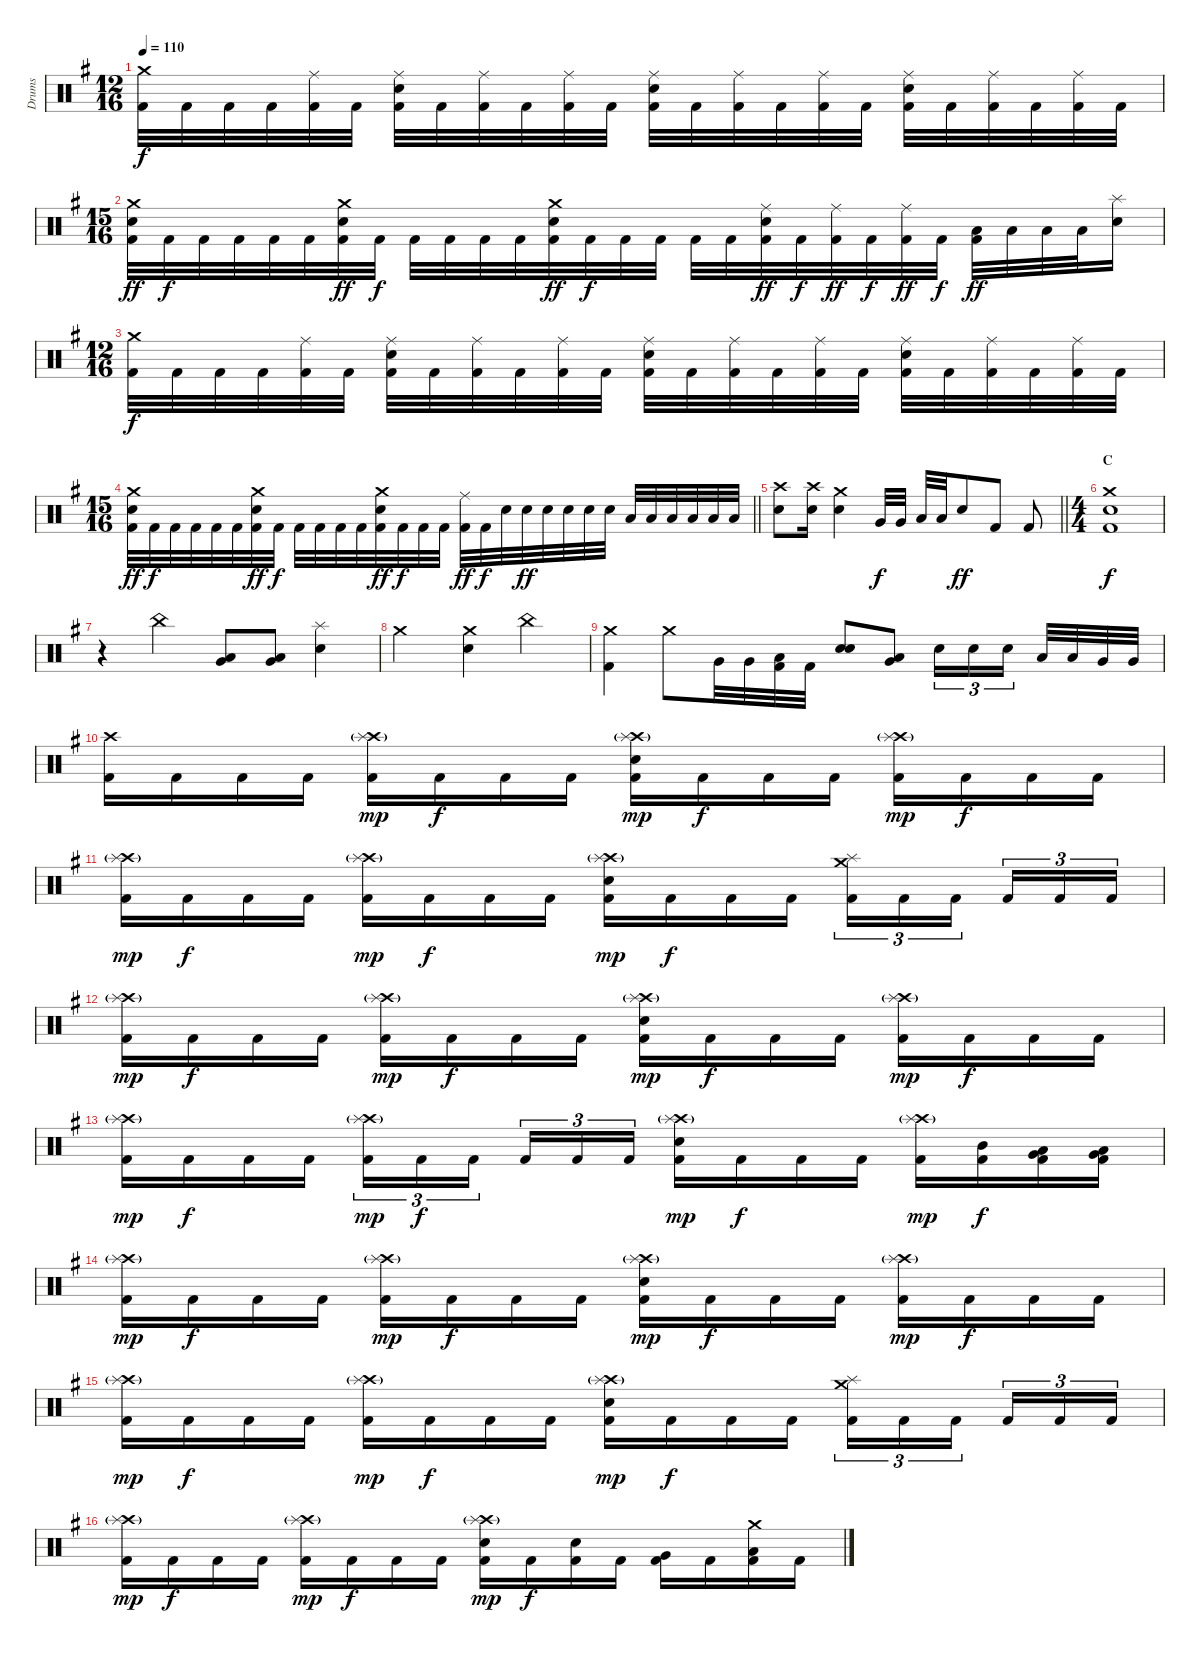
\track ("Drums" "Drums") {instrument percussion}
\staff {score}
\articulation defaults
\ts (12 16)
\tempo 110
\clef neutral
\ks eminor
("Crash medium (hit)" "Kick (hit) 2").32{dy f} "Kick (hit) 2".32 "Kick (hit) 2".32 "Kick (hit) 2".32 ("Ride (middle)" "Kick (hit) 2").32 "Kick (hit) 2".32 ("Ride (middle)" "Snare (hit) 2" "Kick (hit) 2").32 "Kick (hit) 2".32 ("Ride (middle)" "Kick (hit) 2").32 "Kick (hit) 2".32 ("Ride (middle)" "Kick (hit) 2").32 "Kick (hit) 2".32 ("Ride (middle)" "Snare (hit) 2" "Kick (hit) 2").32 "Kick (hit) 2".32 ("Ride (middle)" "Kick (hit) 2").32 "Kick (hit) 2".32 ("Ride (middle)" "Kick (hit) 2").32 "Kick (hit) 2".32 ("Ride (middle)" "Snare (hit) 2" "Kick (hit) 2").32 "Kick (hit) 2".32 ("Ride (middle)" "Kick (hit) 2").32 "Kick (hit) 2".32 ("Ride (middle)" "Kick (hit) 2").32 "Kick (hit) 2".32 |
\ts (15 16)
("Crash medium (hit)" "Snare (hit) 2" "Kick (hit) 2").32{dy ff} "Kick (hit) 2".32{dy f} "Kick (hit) 2".32 "Kick (hit) 2".32 "Kick (hit) 2".32 "Kick (hit) 2".32 ("Crash medium (hit)" "Snare (hit) 2" "Kick (hit) 2").32{dy ff} "Kick (hit) 2".32{dy f} "Kick (hit) 2".32 "Kick (hit) 2".32 "Kick (hit) 2".32 "Kick (hit) 2".32 ("Crash medium (hit)" "Snare (hit) 2" "Kick (hit) 2").32{dy ff} "Kick (hit) 2".32{dy f} "Kick (hit) 2".32 "Kick (hit) 2".32 "Kick (hit) 2".32 "Kick (hit) 2".32 ("Ride (middle)" "Snare (hit) 2" "Kick (hit) 2").32{dy ff} "Kick (hit) 2".32{dy f} ("Ride (middle)" "Kick (hit) 2").32{dy ff} "Kick (hit) 2".32{dy f} ("Ride (middle)" "Kick (hit) 2").32{dy ff} "Kick (hit) 2".32{dy f} ("Low Floor Tom (hit)" "Kick (hit) 2").32{dy ff} "Low Floor Tom (hit)".32 "Low Floor Tom (hit)".32 "Low Floor Tom (hit)".32 ("Splash (hit)" "Snare (hit) 2").16 |
\ts (12 16)
("Crash medium (hit)" "Kick (hit) 2").32{dy f} "Kick (hit) 2".32 "Kick (hit) 2".32 "Kick (hit) 2".32 ("Ride (middle)" "Kick (hit) 2").32 "Kick (hit) 2".32 ("Ride (middle)" "Snare (hit) 2" "Kick (hit) 2").32 "Kick (hit) 2".32 ("Ride (middle)" "Kick (hit) 2").32 "Kick (hit) 2".32 ("Ride (middle)" "Kick (hit) 2").32 "Kick (hit) 2".32 ("Ride (middle)" "Snare (hit) 2" "Kick (hit) 2").32 "Kick (hit) 2".32 ("Ride (middle)" "Kick (hit) 2").32 "Kick (hit) 2".32 ("Ride (middle)" "Kick (hit) 2").32 "Kick (hit) 2".32 ("Ride (middle)" "Snare (hit) 2" "Kick (hit) 2").32 "Kick (hit) 2".32 ("Ride (middle)" "Kick (hit) 2").32 "Kick (hit) 2".32 ("Ride (middle)" "Kick (hit) 2").32 "Kick (hit) 2".32 |
\ts (15 16)
\barLineRight lightlight
("Crash medium (hit)" "Snare (hit) 2" "Kick (hit) 2").32{dy ff} "Kick (hit) 2".32{dy f} "Kick (hit) 2".32 "Kick (hit) 2".32 "Kick (hit) 2".32 "Kick (hit) 2".32 ("Crash medium (hit)" "Snare (hit) 2" "Kick (hit) 2").32{dy ff} "Kick (hit) 2".32{dy f} "Kick (hit) 2".32 "Kick (hit) 2".32 "Kick (hit) 2".32 "Kick (hit) 2".32 ("Crash medium (hit)" "Snare (hit) 2" "Kick (hit) 2").32{dy ff} "Kick (hit) 2".32{dy f} "Kick (hit) 2".32 "Kick (hit) 2".32 ("Ride (middle)" "Kick (hit) 2").32{dy ff} "Kick (hit) 2".32{dy f} "Snare (hit) 2".32 "Snare (hit) 2".32{dy ff} "Snare (hit) 2".32 "Snare (hit) 2".32 "Snare (hit) 2".32 "Snare (hit) 2".32 "Low Tom (hit)".32 "Low Tom (hit)".32 "Low Tom (hit)".32 "Low Tom (hit)".32 "Low Tom (hit)".32 "Low Tom (hit)".32 |
\barLineRight lightlight
("Crash high (hit)" "Snare (hit) 2").8 ("Crash high (hit)" "Snare (hit) 2").16 ("Crash medium (hit)" "Snare (hit) 2").4 "Very Low Tom (hit)".32{dy f} "Very Low Tom (hit)".32 "Low Floor Tom (hit)".32 "Low Floor Tom (hit)".32 "Snare (hit) 2".8{dy ff} "Kick (hit) 2".8 "Kick (hit) 2".8 |
\ts (4 4)
\section ("" "C")
("Crash medium (hit)" "Snare (hit) 2" "Kick (hit) 2").1{dy f} |
r.4 "China (hit)".4 ("Very Low Tom (hit)" "Low Floor Tom (hit)").8 ("Very Low Tom (hit)" "Low Floor Tom (hit)").8 ("Splash (hit)" "Snare (hit) 2").4 |
"Crash medium (hit)".2 ("Crash medium (hit)" "Snare (hit) 2").4 "China (hit)".4 |
("Crash medium (hit)" "Kick (hit) 2").4 "Crash medium (hit)".8 "Very Low Tom (hit)".32 "Very Low Tom (hit)".32 ("Low Floor Tom (hit)" "Kick (hit) 2").32 "Kick (hit) 2".32 ("Snare (hit) 2" "Snare (hit) 2").8 ("Low Tom (hit)" "Very Low Tom (hit)").8 "Snare (hit) 2".16{tu (3 2)} "Snare (hit) 2".16{tu (3 2)} "Snare (hit) 2".16{tu (3 2) beam splitsecondary} "Low Tom (hit)".32 "Low Tom (hit)".32 "Very Low Tom (hit)".32 "Very Low Tom (hit)".32 |
("Crash high (hit)" "Kick (hit) 2").16 "Kick (hit) 2".16 "Kick (hit) 2".16 "Kick (hit) 2".16 ("Crash high (hit)"{g} "Splash (hit)" "Kick (hit) 2").16{dy mp} "Kick (hit) 2".16{dy f} "Kick (hit) 2".16 "Kick (hit) 2".16 ("Crash high (hit)"{g} "Splash (hit)" "Snare (hit) 2" "Kick (hit) 2").16{dy mp} "Kick (hit) 2".16{dy f} "Kick (hit) 2".16 "Kick (hit) 2".16 ("Crash high (hit)"{g} "Splash (hit)" "Kick (hit) 2").16{dy mp} "Kick (hit) 2".16{dy f} "Kick (hit) 2".16 "Kick (hit) 2".16 |
("Crash high (hit)"{g} "Splash (hit)" "Kick (hit) 2").16{dy mp} "Kick (hit) 2".16{dy f} "Kick (hit) 2".16 "Kick (hit) 2".16 ("Crash high (hit)"{g} "Splash (hit)" "Kick (hit) 2").16{dy mp} "Kick (hit) 2".16{dy f} "Kick (hit) 2".16 "Kick (hit) 2".16 ("Crash high (hit)"{g} "Splash (hit)" "Snare (hit) 2" "Kick (hit) 2").16{dy mp} "Kick (hit) 2".16{dy f} "Kick (hit) 2".16 "Kick (hit) 2".16 ("Crash medium (hit)" "Splash (hit)" "Kick (hit) 2").16{tu (3 2)} "Kick (hit) 2".16{tu (3 2)} "Kick (hit) 2".16{tu (3 2) beam splitsecondary} "Kick (hit) 2".16{tu (3 2)} "Kick (hit) 2".16{tu (3 2)} "Kick (hit) 2".16{tu (3 2)} |
("Crash high (hit)"{g} "Splash (hit)" "Kick (hit) 2").16{dy mp} "Kick (hit) 2".16{dy f} "Kick (hit) 2".16 "Kick (hit) 2".16 ("Crash high (hit)"{g} "Splash (hit)" "Kick (hit) 2").16{dy mp} "Kick (hit) 2".16{dy f} "Kick (hit) 2".16 "Kick (hit) 2".16 ("Crash high (hit)"{g} "Splash (hit)" "Snare (hit) 2" "Kick (hit) 2").16{dy mp} "Kick (hit) 2".16{dy f} "Kick (hit) 2".16 "Kick (hit) 2".16 ("Crash high (hit)"{g} "Splash (hit)" "Kick (hit) 2").16{dy mp} "Kick (hit) 2".16{dy f} "Kick (hit) 2".16 "Kick (hit) 2".16 |
("Crash high (hit)"{g} "Splash (hit)" "Kick (hit) 2").16{dy mp} "Kick (hit) 2".16{dy f} "Kick (hit) 2".16 "Kick (hit) 2".16 ("Crash high (hit)"{g} "Splash (hit)" "Kick (hit) 2").16{tu (3 2) dy mp} "Kick (hit) 2".16{tu (3 2) dy f} "Kick (hit) 2".16{tu (3 2) beam splitsecondary} "Kick (hit) 2".16{tu (3 2)} "Kick (hit) 2".16{tu (3 2)} "Kick (hit) 2".16{tu (3 2)} ("Crash high (hit)"{g} "Splash (hit)" "Snare (hit) 2" "Kick (hit) 2").16{dy mp} "Kick (hit) 2".16{dy f} "Kick (hit) 2".16 "Kick (hit) 2".16 ("Crash high (hit)"{g} "Splash (hit)" "Kick (hit) 2").16{dy mp} ("Mid Tom (hit)" "Kick (hit) 2").16{dy f} ("Very Low Tom (hit)" "Low Tom (hit)" "Kick (hit) 2").16 ("Low Floor Tom (hit)" "Very Low Tom (hit)" "Kick (hit) 2").16 |
("Crash high (hit)"{g} "Splash (hit)" "Kick (hit) 2").16{dy mp} "Kick (hit) 2".16{dy f} "Kick (hit) 2".16 "Kick (hit) 2".16 ("Crash high (hit)"{g} "Splash (hit)" "Kick (hit) 2").16{dy mp} "Kick (hit) 2".16{dy f} "Kick (hit) 2".16 "Kick (hit) 2".16 ("Crash high (hit)"{g} "Splash (hit)" "Snare (hit) 2" "Kick (hit) 2").16{dy mp} "Kick (hit) 2".16{dy f} "Kick (hit) 2".16 "Kick (hit) 2".16 ("Crash high (hit)"{g} "Splash (hit)" "Kick (hit) 2").16{dy mp} "Kick (hit) 2".16{dy f} "Kick (hit) 2".16 "Kick (hit) 2".16 |
("Crash high (hit)"{g} "Splash (hit)" "Kick (hit) 2").16{dy mp} "Kick (hit) 2".16{dy f} "Kick (hit) 2".16 "Kick (hit) 2".16 ("Crash high (hit)"{g} "Splash (hit)" "Kick (hit) 2").16{dy mp} "Kick (hit) 2".16{dy f} "Kick (hit) 2".16 "Kick (hit) 2".16 ("Crash high (hit)"{g} "Splash (hit)" "Snare (hit) 2" "Kick (hit) 2").16{dy mp} "Kick (hit) 2".16{dy f} "Kick (hit) 2".16 "Kick (hit) 2".16 ("Crash medium (hit)" "Splash (hit)" "Kick (hit) 2").16{tu (3 2)} "Kick (hit) 2".16{tu (3 2)} "Kick (hit) 2".16{tu (3 2) beam splitsecondary} "Kick (hit) 2".16{tu (3 2)} "Kick (hit) 2".16{tu (3 2)} "Kick (hit) 2".16{tu (3 2)} |
("Crash high (hit)"{g} "Splash (hit)" "Kick (hit) 2").16{dy mp} "Kick (hit) 2".16{dy f} "Kick (hit) 2".16 "Kick (hit) 2".16 ("Crash high (hit)"{g} "Splash (hit)" "Kick (hit) 2").16{dy mp} "Kick (hit) 2".16{dy f} "Kick (hit) 2".16 "Kick (hit) 2".16 ("Crash high (hit)"{g} "Splash (hit)" "Snare (hit) 2" "Kick (hit) 2").16{dy mp} "Kick (hit) 2".16{dy f} ("Snare (hit) 2" "Kick (hit) 2").16 "Kick (hit) 2".16 ("Very Low Tom (hit)" "Kick (hit) 2").16 "Kick (hit) 2".16 ("Crash medium (hit)" "Low Floor Tom (hit)" "Kick (hit) 2").16 "Kick (hit) 2".16
